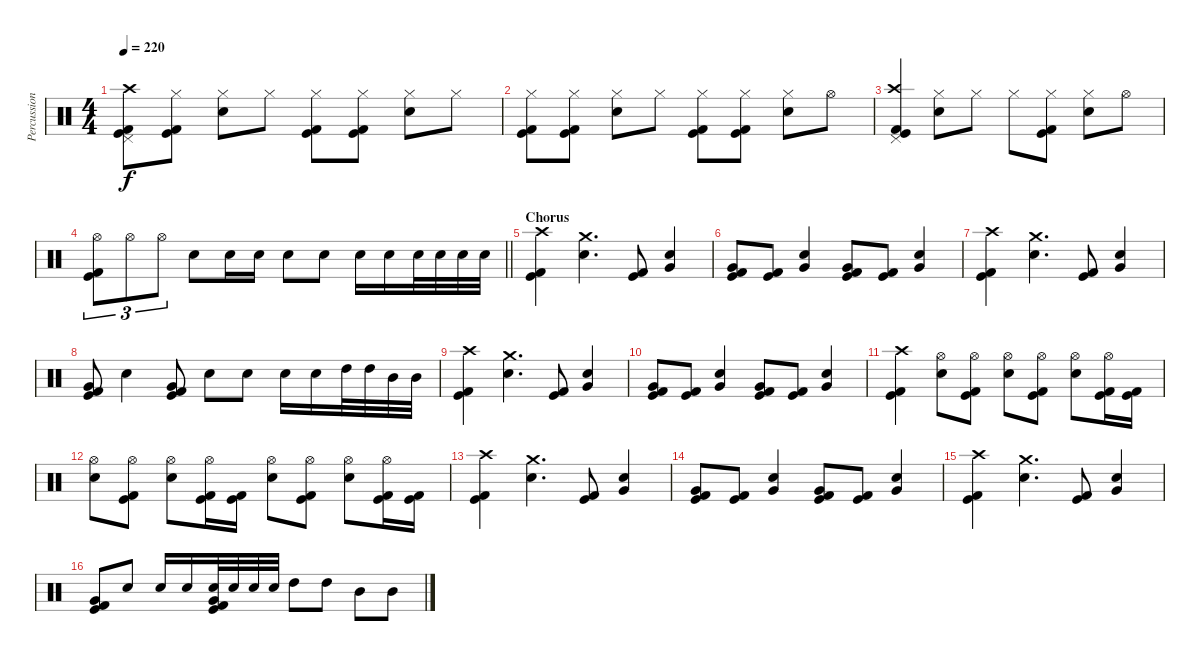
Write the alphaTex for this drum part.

\track ("Percussion" "Percussion") {instrument percussion}
\staff {score}
\articulation defaults
\ts (4 4)
\tempo 220
\clef neutral
\ks c
("Pedal Hi-Hat (hit)" "Crash high (hit)" "Kick (hit)" "Kick (hit) 2").8{dy f} ("Hi-Hat (closed)" "Kick (hit)" "Kick (hit) 2").8 ("Hi-Hat (closed)" "Electric Snare (hit)").8 "Hi-Hat (closed)".8 ("Hi-Hat (closed)" "Kick (hit)" "Kick (hit) 2").8 ("Hi-Hat (closed)" "Kick (hit)" "Kick (hit) 2").8 ("Hi-Hat (closed)" "Electric Snare (hit)").8 "Hi-Hat (closed)".8 |
("Hi-Hat (closed)" "Kick (hit)" "Kick (hit) 2").8 ("Hi-Hat (closed)" "Kick (hit)" "Kick (hit) 2").8 ("Hi-Hat (closed)" "Electric Snare (hit)").8 "Hi-Hat (closed)".8 ("Hi-Hat (closed)" "Kick (hit)" "Kick (hit) 2").8 ("Hi-Hat (closed)" "Kick (hit)" "Kick (hit) 2").8 ("Hi-Hat (closed)" "Electric Snare (hit)").8 "Hi-Hat (open)".8 |
("Pedal Hi-Hat (hit)" "Crash high (hit)" "Kick (hit)" "Kick (hit) 2").4 ("Hi-Hat (closed)" "Electric Snare (hit)").8 "Hi-Hat (closed)".8 "Hi-Hat (closed)".8 ("Hi-Hat (closed)" "Kick (hit)" "Kick (hit) 2").8 ("Hi-Hat (closed)" "Electric Snare (hit)").8 "Hi-Hat (open)".8 |
\barLineRight lightlight
("Hi-Hat (open)" "Kick (hit)" "Kick (hit) 2").8{tu (3 2)} "Hi-Hat (open)".8{tu (3 2)} "Hi-Hat (open)".8{tu (3 2)} "Electric Snare (hit)".8 "Electric Snare (hit)".16 "Electric Snare (hit)".16 "Electric Snare (hit)".8 "Electric Snare (hit)".8 "Electric Snare (hit)".16 "Electric Snare (hit)".16 "Electric Snare (hit)".32 "Electric Snare (hit)".32 "Electric Snare (hit)".32 "Electric Snare (hit)".32 |
\section ("" "Chorus")
("Crash high (hit)" "Kick (hit)" "Kick (hit) 2").4 ("Crash medium (hit)" "Electric Snare (hit)").4{d} ("Kick (hit)" "Kick (hit) 2").8 ("Very Low Tom (hit)" "Electric Snare (hit)").4 |
("Very Low Tom (hit)" "Kick (hit)" "Kick (hit) 2").8 ("Kick (hit)" "Kick (hit) 2").8 ("Very Low Tom (hit)" "Electric Snare (hit)").4 ("Very Low Tom (hit)" "Kick (hit)" "Kick (hit) 2").8 ("Kick (hit)" "Kick (hit) 2").8 ("Very Low Tom (hit)" "Electric Snare (hit)").4 |
("Crash high (hit)" "Kick (hit)" "Kick (hit) 2").4 ("Crash medium (hit)" "Electric Snare (hit)").4{d} ("Kick (hit)" "Kick (hit) 2").8 ("Very Low Tom (hit)" "Electric Snare (hit)").4 |
("Very Low Tom (hit)" "Kick (hit)" "Kick (hit) 2").8 "Electric Snare (hit)".4 ("Very Low Tom (hit)" "Kick (hit)" "Kick (hit) 2").8 "Electric Snare (hit)".8 "Electric Snare (hit)".8 "Electric Snare (hit)".16 "Electric Snare (hit)".16 "High Tom (hit)".32 "High Tom (hit)".32 "Mid Tom (hit)".32 "Mid Tom (hit)".32 |
("Crash high (hit)" "Kick (hit)" "Kick (hit) 2").4 ("Crash medium (hit)" "Electric Snare (hit)").4{d} ("Kick (hit)" "Kick (hit) 2").8 ("Very Low Tom (hit)" "Electric Snare (hit)").4 |
("Very Low Tom (hit)" "Kick (hit)" "Kick (hit) 2").8 ("Kick (hit)" "Kick (hit) 2").8 ("Very Low Tom (hit)" "Electric Snare (hit)").4 ("Very Low Tom (hit)" "Kick (hit)" "Kick (hit) 2").8 ("Kick (hit)" "Kick (hit) 2").8 ("Very Low Tom (hit)" "Electric Snare (hit)").4 |
("Crash high (hit)" "Kick (hit)" "Kick (hit) 2").4 ("Hi-Hat (open)" "Electric Snare (hit)").8 ("Hi-Hat (open)" "Kick (hit)" "Kick (hit) 2").8 ("Hi-Hat (open)" "Electric Snare (hit)").8 ("Hi-Hat (open)" "Kick (hit)" "Kick (hit) 2").8 ("Hi-Hat (open)" "Electric Snare (hit)").8 ("Hi-Hat (open)" "Kick (hit)" "Kick (hit) 2").16 ("Kick (hit)" "Kick (hit) 2").16 |
("Hi-Hat (open)" "Electric Snare (hit)").8 ("Hi-Hat (open)" "Kick (hit)" "Kick (hit) 2").8 ("Hi-Hat (open)" "Electric Snare (hit)").8 ("Hi-Hat (open)" "Kick (hit)" "Kick (hit) 2").16 ("Kick (hit)" "Kick (hit) 2").16 ("Hi-Hat (open)" "Electric Snare (hit)").8 ("Hi-Hat (open)" "Kick (hit)" "Kick (hit) 2").8 ("Hi-Hat (open)" "Electric Snare (hit)").8 ("Hi-Hat (open)" "Kick (hit)" "Kick (hit) 2").16 ("Kick (hit)" "Kick (hit) 2").16 |
("Crash high (hit)" "Kick (hit)" "Kick (hit) 2").4 ("Crash medium (hit)" "Electric Snare (hit)").4{d} ("Kick (hit)" "Kick (hit) 2").8 ("Very Low Tom (hit)" "Electric Snare (hit)").4 |
("Very Low Tom (hit)" "Kick (hit)" "Kick (hit) 2").8 ("Kick (hit)" "Kick (hit) 2").8 ("Very Low Tom (hit)" "Electric Snare (hit)").4 ("Very Low Tom (hit)" "Kick (hit)" "Kick (hit) 2").8 ("Kick (hit)" "Kick (hit) 2").8 ("Very Low Tom (hit)" "Electric Snare (hit)").4 |
("Crash high (hit)" "Kick (hit)" "Kick (hit) 2").4 ("Crash medium (hit)" "Electric Snare (hit)").4{d} ("Kick (hit)" "Kick (hit) 2").8 ("Very Low Tom (hit)" "Electric Snare (hit)").4 |
("Very Low Tom (hit)" "Kick (hit)" "Kick (hit) 2").8 "Electric Snare (hit)".8 "Electric Snare (hit)".16 "Electric Snare (hit)".16 ("Very Low Tom (hit)" "Electric Snare (hit)" "Kick (hit)" "Kick (hit) 2").32 "Electric Snare (hit)".32 "Electric Snare (hit)".32 "Electric Snare (hit)".32 "High Tom (hit)".8 "High Tom (hit)".8 "Mid Tom (hit)".8 "Mid Tom (hit)".8
